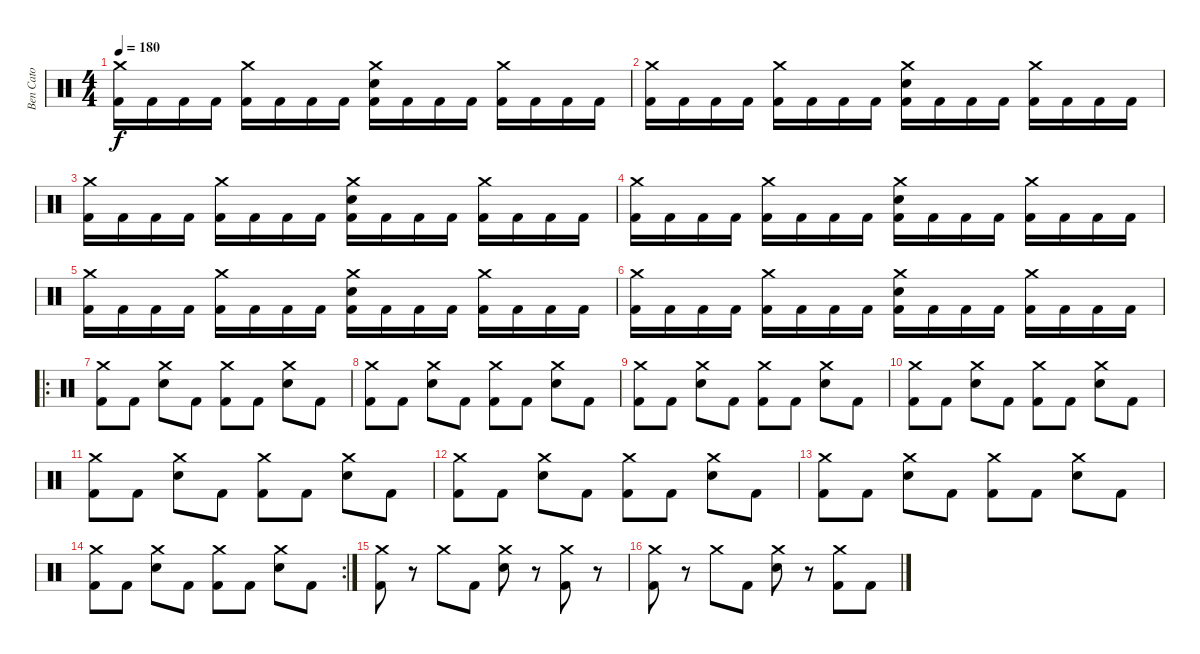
\track ("Ben Cato" "Ben Cato") {instrument percussion}
\staff {score}
\articulation defaults
\ts (4 4)
\tempo 180
\clef neutral
\ks c
("Crash medium (hit)" "Kick (hit) 2").16{dy f} "Kick (hit) 2".16 "Kick (hit) 2".16 "Kick (hit) 2".16 ("Crash medium (hit)" "Kick (hit) 2").16 "Kick (hit) 2".16 "Kick (hit) 2".16 "Kick (hit) 2".16 ("Crash medium (hit)" "Electric Snare (hit)" "Kick (hit) 2").16 "Kick (hit) 2".16 "Kick (hit) 2".16 "Kick (hit) 2".16 ("Crash medium (hit)" "Kick (hit) 2").16 "Kick (hit) 2".16 "Kick (hit) 2".16 "Kick (hit) 2".16 |
("Crash medium (hit)" "Kick (hit) 2").16 "Kick (hit) 2".16 "Kick (hit) 2".16 "Kick (hit) 2".16 ("Crash medium (hit)" "Kick (hit) 2").16 "Kick (hit) 2".16 "Kick (hit) 2".16 "Kick (hit) 2".16 ("Crash medium (hit)" "Electric Snare (hit)" "Kick (hit) 2").16 "Kick (hit) 2".16 "Kick (hit) 2".16 "Kick (hit) 2".16 ("Crash medium (hit)" "Kick (hit) 2").16 "Kick (hit) 2".16 "Kick (hit) 2".16 "Kick (hit) 2".16 |
("Crash medium (hit)" "Kick (hit) 2").16 "Kick (hit) 2".16 "Kick (hit) 2".16 "Kick (hit) 2".16 ("Crash medium (hit)" "Kick (hit) 2").16 "Kick (hit) 2".16 "Kick (hit) 2".16 "Kick (hit) 2".16 ("Crash medium (hit)" "Electric Snare (hit)" "Kick (hit) 2").16 "Kick (hit) 2".16 "Kick (hit) 2".16 "Kick (hit) 2".16 ("Crash medium (hit)" "Kick (hit) 2").16 "Kick (hit) 2".16 "Kick (hit) 2".16 "Kick (hit) 2".16 |
("Crash medium (hit)" "Kick (hit) 2").16 "Kick (hit) 2".16 "Kick (hit) 2".16 "Kick (hit) 2".16 ("Crash medium (hit)" "Kick (hit) 2").16 "Kick (hit) 2".16 "Kick (hit) 2".16 "Kick (hit) 2".16 ("Crash medium (hit)" "Electric Snare (hit)" "Kick (hit) 2").16 "Kick (hit) 2".16 "Kick (hit) 2".16 "Kick (hit) 2".16 ("Crash medium (hit)" "Kick (hit) 2").16 "Kick (hit) 2".16 "Kick (hit) 2".16 "Kick (hit) 2".16 |
("Crash medium (hit)" "Kick (hit) 2").16 "Kick (hit) 2".16 "Kick (hit) 2".16 "Kick (hit) 2".16 ("Crash medium (hit)" "Kick (hit) 2").16 "Kick (hit) 2".16 "Kick (hit) 2".16 "Kick (hit) 2".16 ("Crash medium (hit)" "Electric Snare (hit)" "Kick (hit) 2").16 "Kick (hit) 2".16 "Kick (hit) 2".16 "Kick (hit) 2".16 ("Crash medium (hit)" "Kick (hit) 2").16 "Kick (hit) 2".16 "Kick (hit) 2".16 "Kick (hit) 2".16 |
("Crash medium (hit)" "Kick (hit) 2").16 "Kick (hit) 2".16 "Kick (hit) 2".16 "Kick (hit) 2".16 ("Crash medium (hit)" "Kick (hit) 2").16 "Kick (hit) 2".16 "Kick (hit) 2".16 "Kick (hit) 2".16 ("Crash medium (hit)" "Electric Snare (hit)" "Kick (hit) 2").16 "Kick (hit) 2".16 "Kick (hit) 2".16 "Kick (hit) 2".16 ("Crash medium (hit)" "Kick (hit) 2").16 "Kick (hit) 2".16 "Kick (hit) 2".16 "Kick (hit) 2".16 |
\ro
("Crash medium (hit)" "Kick (hit) 2").8 "Kick (hit) 2".8 ("Crash medium (hit)" "Electric Snare (hit)").8 "Kick (hit) 2".8 ("Crash medium (hit)" "Kick (hit) 2").8 "Kick (hit) 2".8 ("Crash medium (hit)" "Electric Snare (hit)").8 "Kick (hit) 2".8 |
("Crash medium (hit)" "Kick (hit) 2").8 "Kick (hit) 2".8 ("Crash medium (hit)" "Electric Snare (hit)").8 "Kick (hit) 2".8 ("Crash medium (hit)" "Kick (hit) 2").8 "Kick (hit) 2".8 ("Crash medium (hit)" "Electric Snare (hit)").8 "Kick (hit) 2".8 |
("Crash medium (hit)" "Kick (hit) 2").8 "Kick (hit) 2".8 ("Crash medium (hit)" "Electric Snare (hit)").8 "Kick (hit) 2".8 ("Crash medium (hit)" "Kick (hit) 2").8 "Kick (hit) 2".8 ("Crash medium (hit)" "Electric Snare (hit)").8 "Kick (hit) 2".8 |
("Crash medium (hit)" "Kick (hit) 2").8 "Kick (hit) 2".8 ("Crash medium (hit)" "Electric Snare (hit)").8 "Kick (hit) 2".8 ("Crash medium (hit)" "Kick (hit) 2").8 "Kick (hit) 2".8 ("Crash medium (hit)" "Electric Snare (hit)").8 "Kick (hit) 2".8 |
("Crash medium (hit)" "Kick (hit) 2").8 "Kick (hit) 2".8 ("Crash medium (hit)" "Electric Snare (hit)").8 "Kick (hit) 2".8 ("Crash medium (hit)" "Kick (hit) 2").8 "Kick (hit) 2".8 ("Crash medium (hit)" "Electric Snare (hit)").8 "Kick (hit) 2".8 |
("Crash medium (hit)" "Kick (hit) 2").8 "Kick (hit) 2".8 ("Crash medium (hit)" "Electric Snare (hit)").8 "Kick (hit) 2".8 ("Crash medium (hit)" "Kick (hit) 2").8 "Kick (hit) 2".8 ("Crash medium (hit)" "Electric Snare (hit)").8 "Kick (hit) 2".8 |
("Crash medium (hit)" "Kick (hit) 2").8 "Kick (hit) 2".8 ("Crash medium (hit)" "Electric Snare (hit)").8 "Kick (hit) 2".8 ("Crash medium (hit)" "Kick (hit) 2").8 "Kick (hit) 2".8 ("Crash medium (hit)" "Electric Snare (hit)").8 "Kick (hit) 2".8 |
\rc 2
("Crash medium (hit)" "Kick (hit) 2").8 "Kick (hit) 2".8 ("Crash medium (hit)" "Electric Snare (hit)").8 "Kick (hit) 2".8 ("Crash medium (hit)" "Kick (hit) 2").8 "Kick (hit) 2".8 ("Crash medium (hit)" "Electric Snare (hit)").8 "Kick (hit) 2".8 |
("Crash medium (hit)" "Kick (hit) 2").8 r.8 "Crash medium (hit)".8 "Kick (hit) 2".8 ("Crash medium (hit)" "Electric Snare (hit)").8 r.8 ("Crash medium (hit)" "Kick (hit) 2").8 r.8 |
("Crash medium (hit)" "Kick (hit) 2").8 r.8 "Crash medium (hit)".8 "Kick (hit) 2".8 ("Crash medium (hit)" "Electric Snare (hit)").8 r.8 ("Crash medium (hit)" "Kick (hit) 2").8 "Kick (hit) 2".8
